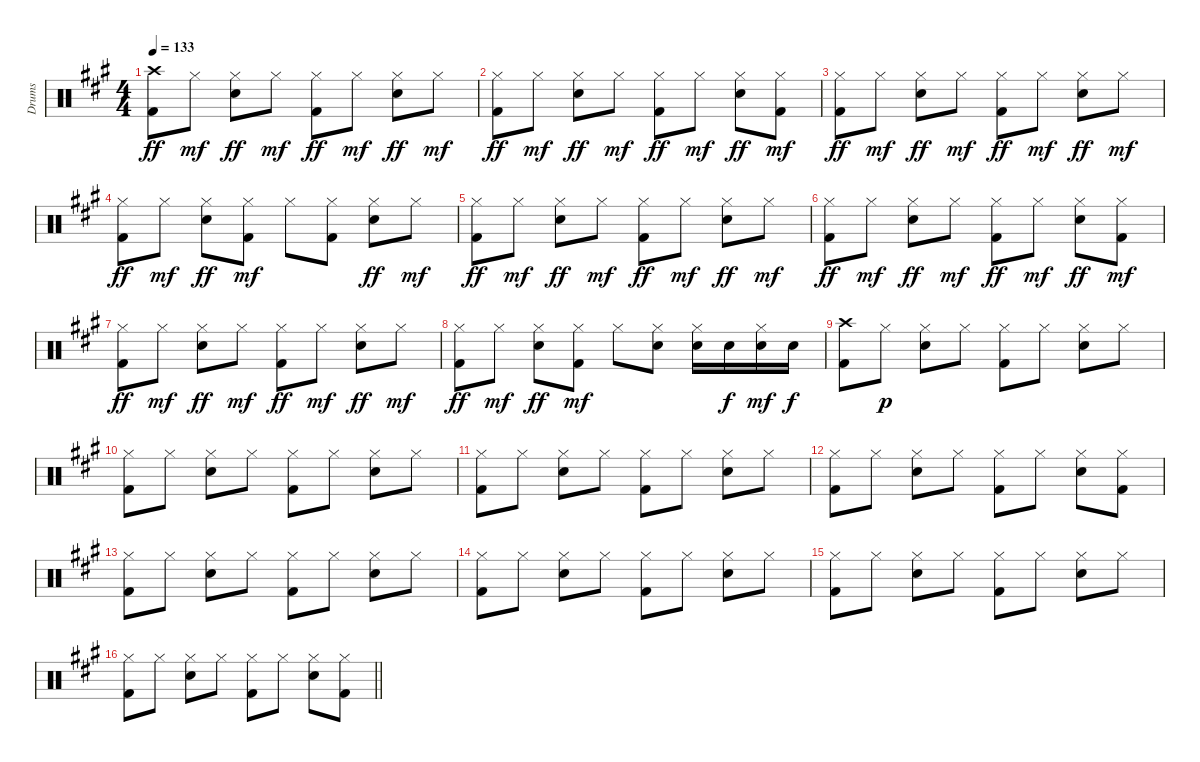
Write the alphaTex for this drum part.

\track ("Drums" "Drums") {instrument percussion}
\staff {score}
\articulation defaults
\ts (4 4)
\tempo 133
\clef neutral
\ks a
("Crash high (hit)" "Kick (hit) 2").8{dy ff} "Hi-Hat (closed)".8{dy mf} ("Hi-Hat (closed)" "Snare (hit) 2").8{dy ff} "Hi-Hat (closed)".8{dy mf} ("Hi-Hat (closed)" "Kick (hit) 2").8{dy ff} "Hi-Hat (closed)".8{dy mf} ("Hi-Hat (closed)" "Snare (hit) 2").8{dy ff} "Hi-Hat (closed)".8{dy mf} |
("Hi-Hat (closed)" "Kick (hit) 2").8{dy ff} "Hi-Hat (closed)".8{dy mf} ("Hi-Hat (closed)" "Snare (hit) 2").8{dy ff} "Hi-Hat (closed)".8{dy mf} ("Hi-Hat (closed)" "Kick (hit) 2").8{dy ff} "Hi-Hat (closed)".8{dy mf} ("Hi-Hat (closed)" "Snare (hit) 2").8{dy ff} ("Hi-Hat (closed)" "Kick (hit) 2").8{dy mf} |
("Hi-Hat (closed)" "Kick (hit) 2").8{dy ff} "Hi-Hat (closed)".8{dy mf} ("Hi-Hat (closed)" "Snare (hit) 2").8{dy ff} "Hi-Hat (closed)".8{dy mf} ("Hi-Hat (closed)" "Kick (hit) 2").8{dy ff} "Hi-Hat (closed)".8{dy mf} ("Hi-Hat (closed)" "Snare (hit) 2").8{dy ff} "Hi-Hat (closed)".8{dy mf} |
("Hi-Hat (closed)" "Kick (hit) 2").8{dy ff} "Hi-Hat (closed)".8{dy mf} ("Hi-Hat (closed)" "Snare (hit) 2").8{dy ff} ("Hi-Hat (closed)" "Kick (hit) 2").8{dy mf} "Hi-Hat (closed)".8 ("Hi-Hat (closed)" "Kick (hit) 2").8 ("Hi-Hat (closed)" "Snare (hit) 2").8{dy ff} "Hi-Hat (closed)".8{dy mf} |
("Hi-Hat (closed)" "Kick (hit) 2").8{dy ff} "Hi-Hat (closed)".8{dy mf} ("Hi-Hat (closed)" "Snare (hit) 2").8{dy ff} "Hi-Hat (closed)".8{dy mf} ("Hi-Hat (closed)" "Kick (hit) 2").8{dy ff} "Hi-Hat (closed)".8{dy mf} ("Hi-Hat (closed)" "Snare (hit) 2").8{dy ff} "Hi-Hat (closed)".8{dy mf} |
("Hi-Hat (closed)" "Kick (hit) 2").8{dy ff} "Hi-Hat (closed)".8{dy mf} ("Hi-Hat (closed)" "Snare (hit) 2").8{dy ff} "Hi-Hat (closed)".8{dy mf} ("Hi-Hat (closed)" "Kick (hit) 2").8{dy ff} "Hi-Hat (closed)".8{dy mf} ("Hi-Hat (closed)" "Snare (hit) 2").8{dy ff} ("Hi-Hat (closed)" "Kick (hit) 2").8{dy mf} |
("Hi-Hat (closed)" "Kick (hit) 2").8{dy ff} "Hi-Hat (closed)".8{dy mf} ("Hi-Hat (closed)" "Snare (hit) 2").8{dy ff} "Hi-Hat (closed)".8{dy mf} ("Hi-Hat (closed)" "Kick (hit) 2").8{dy ff} "Hi-Hat (closed)".8{dy mf} ("Hi-Hat (closed)" "Snare (hit) 2").8{dy ff} "Hi-Hat (closed)".8{dy mf} |
("Hi-Hat (closed)" "Kick (hit) 2").8{dy ff} "Hi-Hat (closed)".8{dy mf} ("Hi-Hat (closed)" "Snare (hit) 2").8{dy ff} ("Hi-Hat (closed)" "Kick (hit) 2").8{dy mf} "Hi-Hat (closed)".8 ("Hi-Hat (closed)" "Snare (hit) 2").8 ("Hi-Hat (closed)" "Snare (hit) 2").16 "Snare (hit) 2".16{dy f} ("Hi-Hat (closed)" "Snare (hit) 2").16{dy mf} "Snare (hit) 2".16{dy f} |
("Crash high (hit)" "Kick (hit) 2").8 "Hi-Hat (closed)".8{dy p} ("Hi-Hat (closed)" "Snare (hit) 2").8 "Hi-Hat (closed)".8 ("Hi-Hat (closed)" "Kick (hit) 2").8 "Hi-Hat (closed)".8 ("Hi-Hat (closed)" "Snare (hit) 2").8 "Hi-Hat (closed)".8 |
("Hi-Hat (closed)" "Kick (hit) 2").8 "Hi-Hat (closed)".8 ("Hi-Hat (closed)" "Snare (hit) 2").8 "Hi-Hat (closed)".8 ("Hi-Hat (closed)" "Kick (hit) 2").8 "Hi-Hat (closed)".8 ("Hi-Hat (closed)" "Snare (hit) 2").8 "Hi-Hat (closed)".8 |
("Hi-Hat (closed)" "Kick (hit) 2").8 "Hi-Hat (closed)".8 ("Hi-Hat (closed)" "Snare (hit) 2").8 "Hi-Hat (closed)".8 ("Hi-Hat (closed)" "Kick (hit) 2").8 "Hi-Hat (closed)".8 ("Hi-Hat (closed)" "Snare (hit) 2").8 "Hi-Hat (closed)".8 |
("Hi-Hat (closed)" "Kick (hit) 2").8 "Hi-Hat (closed)".8 ("Hi-Hat (closed)" "Snare (hit) 2").8 "Hi-Hat (closed)".8 ("Hi-Hat (closed)" "Kick (hit) 2").8 "Hi-Hat (closed)".8 ("Hi-Hat (closed)" "Snare (hit) 2").8 ("Hi-Hat (closed)" "Kick (hit) 2").8 |
("Hi-Hat (closed)" "Kick (hit) 2").8 "Hi-Hat (closed)".8 ("Hi-Hat (closed)" "Snare (hit) 2").8 "Hi-Hat (closed)".8 ("Hi-Hat (closed)" "Kick (hit) 2").8 "Hi-Hat (closed)".8 ("Hi-Hat (closed)" "Snare (hit) 2").8 "Hi-Hat (closed)".8 |
("Hi-Hat (closed)" "Kick (hit) 2").8 "Hi-Hat (closed)".8 ("Hi-Hat (closed)" "Snare (hit) 2").8 "Hi-Hat (closed)".8 ("Hi-Hat (closed)" "Kick (hit) 2").8 "Hi-Hat (closed)".8 ("Hi-Hat (closed)" "Snare (hit) 2").8 "Hi-Hat (closed)".8 |
("Hi-Hat (closed)" "Kick (hit) 2").8 "Hi-Hat (closed)".8 ("Hi-Hat (closed)" "Snare (hit) 2").8 "Hi-Hat (closed)".8 ("Hi-Hat (closed)" "Kick (hit) 2").8 "Hi-Hat (closed)".8 ("Hi-Hat (closed)" "Snare (hit) 2").8 "Hi-Hat (closed)".8 |
\barLineRight lightlight
("Hi-Hat (closed)" "Kick (hit) 2").8 "Hi-Hat (closed)".8 ("Hi-Hat (closed)" "Snare (hit) 2").8 "Hi-Hat (closed)".8 ("Hi-Hat (closed)" "Kick (hit) 2").8 "Hi-Hat (closed)".8 ("Hi-Hat (closed)" "Snare (hit) 2").8 ("Hi-Hat (closed)" "Kick (hit) 2").8
